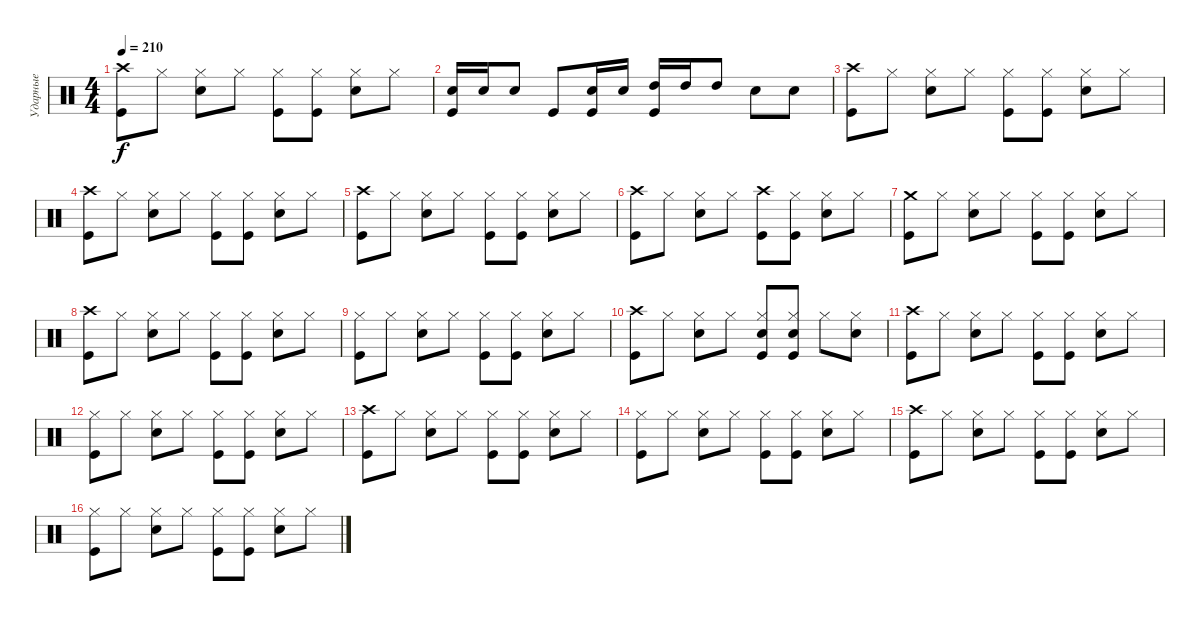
\track ("Ударные" "Ударные") {instrument percussion}
\staff {score}
\articulation defaults
\ts (4 4)
\tempo 210
\clef neutral
\ks c
("Crash high (hit)" "Kick (hit)").8{dy f} "Hi-Hat (closed)".8 ("Hi-Hat (closed)" "Electric Snare (hit)").8 "Hi-Hat (closed)".8 ("Hi-Hat (closed)" "Kick (hit)").8 ("Hi-Hat (closed)" "Kick (hit)").8 ("Hi-Hat (closed)" "Electric Snare (hit)").8 "Hi-Hat (closed)".8 |
("Electric Snare (hit)" "Kick (hit)").16 "Electric Snare (hit)".16 "Electric Snare (hit)".8 "Kick (hit)".8 ("Electric Snare (hit)" "Kick (hit)").16 "Electric Snare (hit)".16 ("High Tom (hit)" "Kick (hit)").16 "High Tom (hit)".16 "High Tom (hit)".8 "Electric Snare (hit)".8 "Electric Snare (hit)".8 |
("Crash high (hit)" "Kick (hit)").8 "Hi-Hat (closed)".8 ("Hi-Hat (closed)" "Electric Snare (hit)").8 "Hi-Hat (closed)".8 ("Hi-Hat (closed)" "Kick (hit)").8 ("Hi-Hat (closed)" "Kick (hit)").8 ("Hi-Hat (closed)" "Electric Snare (hit)").8 "Hi-Hat (closed)".8 |
("Crash high (hit)" "Kick (hit)").8 "Hi-Hat (closed)".8 ("Hi-Hat (closed)" "Electric Snare (hit)").8 "Hi-Hat (closed)".8 ("Hi-Hat (closed)" "Kick (hit)").8 ("Hi-Hat (closed)" "Kick (hit)").8 ("Hi-Hat (closed)" "Electric Snare (hit)").8 "Hi-Hat (closed)".8 |
("Crash high (hit)" "Kick (hit)").8 "Hi-Hat (closed)".8 ("Hi-Hat (closed)" "Electric Snare (hit)").8 "Hi-Hat (closed)".8 ("Hi-Hat (closed)" "Kick (hit)").8 ("Hi-Hat (closed)" "Kick (hit)").8 ("Hi-Hat (closed)" "Electric Snare (hit)").8 "Hi-Hat (closed)".8 |
("Crash high (hit)" "Kick (hit)").8 "Hi-Hat (closed)".8 ("Hi-Hat (closed)" "Electric Snare (hit)").8 "Hi-Hat (closed)".8 ("Crash high (hit)" "Kick (hit)").8 ("Hi-Hat (closed)" "Kick (hit)").8 ("Hi-Hat (closed)" "Electric Snare (hit)").8 "Hi-Hat (closed)".8 |
("Crash medium (hit)" "Kick (hit)").8 "Hi-Hat (closed)".8 ("Hi-Hat (closed)" "Electric Snare (hit)").8 "Hi-Hat (closed)".8 ("Hi-Hat (closed)" "Kick (hit)").8 ("Hi-Hat (closed)" "Kick (hit)").8 ("Hi-Hat (closed)" "Electric Snare (hit)").8 "Hi-Hat (closed)".8 |
("Crash high (hit)" "Kick (hit)").8 "Hi-Hat (closed)".8 ("Hi-Hat (closed)" "Electric Snare (hit)").8 "Hi-Hat (closed)".8 ("Hi-Hat (closed)" "Kick (hit)").8 ("Hi-Hat (closed)" "Kick (hit)").8 ("Hi-Hat (closed)" "Electric Snare (hit)").8 "Hi-Hat (closed)".8 |
("Hi-Hat (closed)" "Kick (hit)").8 "Hi-Hat (closed)".8 ("Hi-Hat (closed)" "Electric Snare (hit)").8 "Hi-Hat (closed)".8 ("Hi-Hat (closed)" "Kick (hit)").8 ("Hi-Hat (closed)" "Kick (hit)").8 ("Hi-Hat (closed)" "Electric Snare (hit)").8 "Hi-Hat (closed)".8 |
("Crash high (hit)" "Kick (hit)").8 "Hi-Hat (closed)".8 ("Hi-Hat (closed)" "Electric Snare (hit)").8 "Hi-Hat (closed)".8 ("Hi-Hat (closed)" "Electric Snare (hit)" "Kick (hit)").8 ("Hi-Hat (closed)" "Electric Snare (hit)" "Kick (hit)").8 "Hi-Hat (closed)".8 ("Hi-Hat (closed)" "Electric Snare (hit)").8 |
("Crash high (hit)" "Kick (hit)").8 "Hi-Hat (closed)".8 ("Hi-Hat (closed)" "Electric Snare (hit)").8 "Hi-Hat (closed)".8 ("Hi-Hat (closed)" "Kick (hit)").8 ("Hi-Hat (closed)" "Kick (hit)").8 ("Hi-Hat (closed)" "Electric Snare (hit)").8 "Hi-Hat (closed)".8 |
("Hi-Hat (closed)" "Kick (hit)").8 "Hi-Hat (closed)".8 ("Hi-Hat (closed)" "Electric Snare (hit)").8 "Hi-Hat (closed)".8 ("Hi-Hat (closed)" "Kick (hit)").8 ("Hi-Hat (closed)" "Kick (hit)").8 ("Hi-Hat (closed)" "Electric Snare (hit)").8 "Hi-Hat (closed)".8 |
("Crash high (hit)" "Kick (hit)").8 "Hi-Hat (closed)".8 ("Hi-Hat (closed)" "Electric Snare (hit)").8 "Hi-Hat (closed)".8 ("Hi-Hat (closed)" "Kick (hit)").8 ("Hi-Hat (closed)" "Kick (hit)").8 ("Hi-Hat (closed)" "Electric Snare (hit)").8 "Hi-Hat (closed)".8 |
("Hi-Hat (closed)" "Kick (hit)").8 "Hi-Hat (closed)".8 ("Hi-Hat (closed)" "Electric Snare (hit)").8 "Hi-Hat (closed)".8 ("Hi-Hat (closed)" "Kick (hit)").8 ("Hi-Hat (closed)" "Kick (hit)").8 ("Hi-Hat (closed)" "Electric Snare (hit)").8 "Hi-Hat (closed)".8 |
("Crash high (hit)" "Kick (hit)").8 "Hi-Hat (closed)".8 ("Hi-Hat (closed)" "Electric Snare (hit)").8 "Hi-Hat (closed)".8 ("Hi-Hat (closed)" "Kick (hit)").8 ("Hi-Hat (closed)" "Kick (hit)").8 ("Hi-Hat (closed)" "Electric Snare (hit)").8 "Hi-Hat (closed)".8 |
("Hi-Hat (closed)" "Kick (hit)").8 "Hi-Hat (closed)".8 ("Hi-Hat (closed)" "Electric Snare (hit)").8 "Hi-Hat (closed)".8 ("Hi-Hat (closed)" "Kick (hit)").8 ("Hi-Hat (closed)" "Kick (hit)").8 ("Hi-Hat (closed)" "Electric Snare (hit)").8 "Hi-Hat (closed)".8
